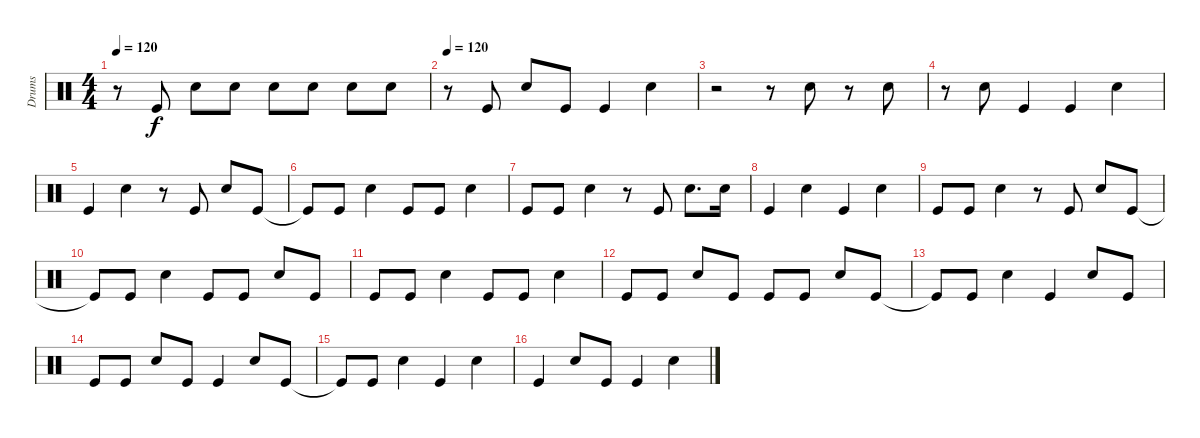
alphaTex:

\track ("Drums" "Drums") {instrument percussion}
\staff {score}
\articulation defaults
\ts (4 4)
\tempo 120
\clef neutral
\ks c
r.8{dy f} "Kick (hit)".8 "Snare (hit) 2".8 "Snare (hit) 2".8 "Snare (hit) 2".8 "Snare (hit) 2".8 "Snare (hit) 2".8 "Snare (hit) 2".8 |
\tempo 120
r.8 "Kick (hit)".8 "Snare (hit) 2".8 "Kick (hit)".8 "Kick (hit)".4 "Snare (hit) 2".4 |
r.2 r.8 "Snare (hit) 2".8 r.8 "Snare (hit) 2".8 |
r.8 "Snare (hit) 2".8 "Kick (hit)".4 "Kick (hit)".4 "Snare (hit) 2".4 |
"Kick (hit)".4 "Snare (hit) 2".4 r.8 "Kick (hit)".8 "Snare (hit) 2".8 "Kick (hit)".8 |
"Kick (hit)"{t}.8 "Kick (hit)".8 "Snare (hit) 2".4 "Kick (hit)".8 "Kick (hit)".8 "Snare (hit) 2".4 |
"Kick (hit)".8 "Kick (hit)".8 "Snare (hit) 2".4 r.8 "Kick (hit)".8 "Snare (hit) 2".8{d} "Snare (hit) 2".16 |
"Kick (hit)".4 "Snare (hit) 2".4 "Kick (hit)".4 "Snare (hit) 2".4 |
"Kick (hit)".8 "Kick (hit)".8 "Snare (hit) 2".4 r.8 "Kick (hit)".8 "Snare (hit) 2".8 "Kick (hit)".8 |
"Kick (hit)"{t}.8 "Kick (hit)".8 "Snare (hit) 2".4 "Kick (hit)".8 "Kick (hit)".8 "Snare (hit) 2".8 "Kick (hit)".8 |
"Kick (hit)".8 "Kick (hit)".8 "Snare (hit) 2".4 "Kick (hit)".8 "Kick (hit)".8 "Snare (hit) 2".4 |
"Kick (hit)".8 "Kick (hit)".8 "Snare (hit) 2".8 "Kick (hit)".8 "Kick (hit)".8 "Kick (hit)".8 "Snare (hit) 2".8 "Kick (hit)".8 |
"Kick (hit)"{t}.8 "Kick (hit)".8 "Snare (hit) 2".4 "Kick (hit)".4 "Snare (hit) 2".8 "Kick (hit)".8 |
"Kick (hit)".8 "Kick (hit)".8 "Snare (hit) 2".8 "Kick (hit)".8 "Kick (hit)".4 "Snare (hit) 2".8 "Kick (hit)".8 |
"Kick (hit)"{t}.8 "Kick (hit)".8 "Snare (hit) 2".4 "Kick (hit)".4 "Snare (hit) 2".4 |
"Kick (hit)".4 "Snare (hit) 2".8 "Kick (hit)".8 "Kick (hit)".4 "Snare (hit) 2".4
